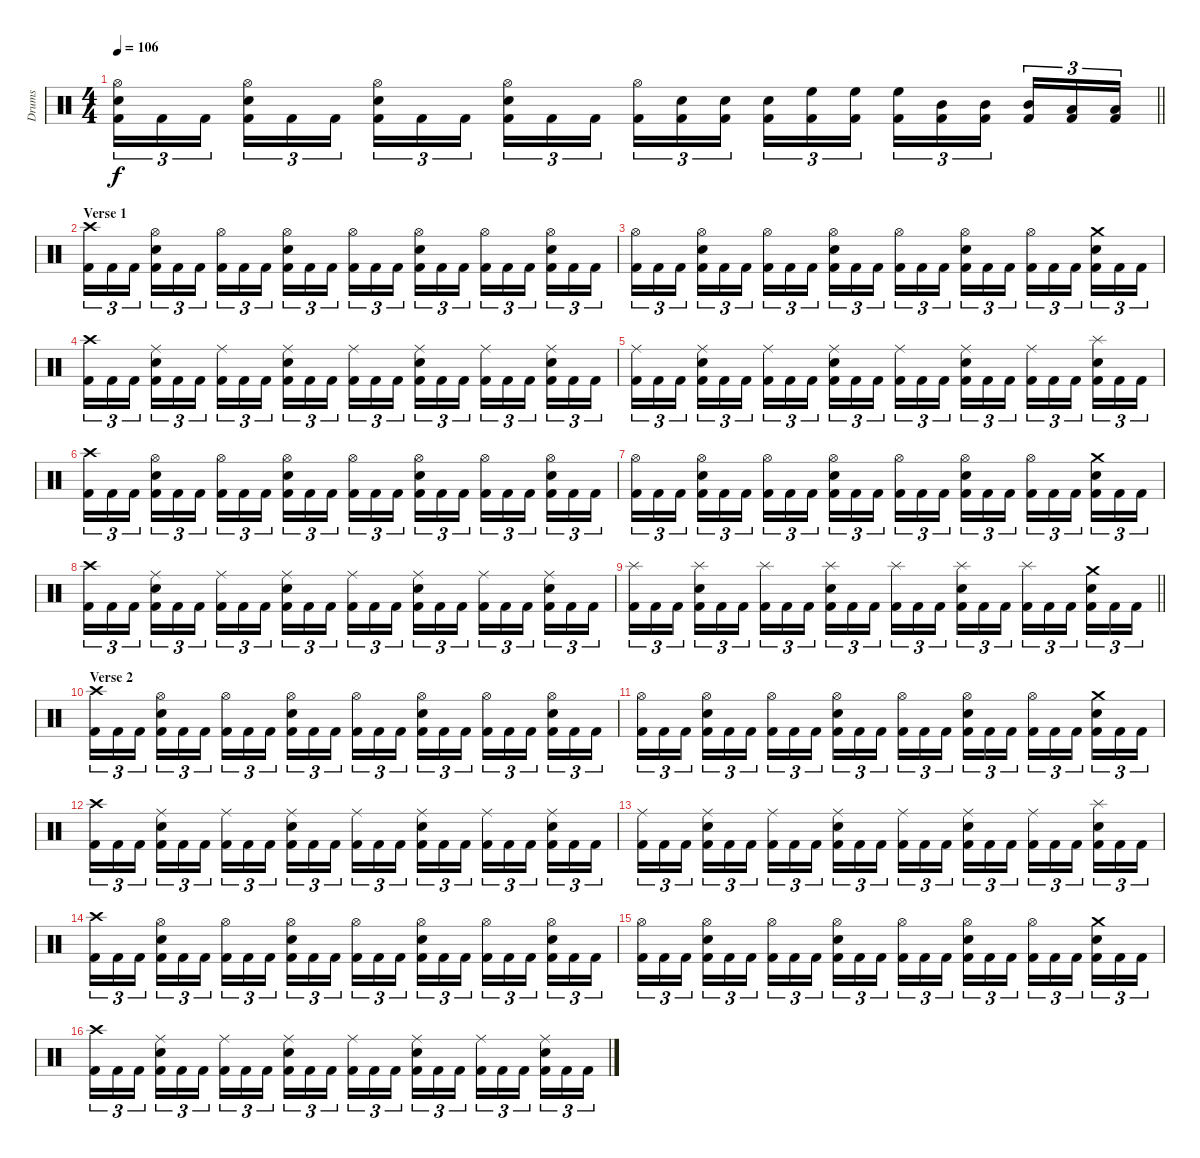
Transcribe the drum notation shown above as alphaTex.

\track ("Drums" "Drums") {instrument percussion}
\staff {score}
\articulation defaults
\ts (4 4)
\tempo 106
\clef neutral
\barLineRight lightlight
\ks c
("Hi-Hat (open)" "Electric Snare (hit)" "Kick (hit) 2").16{tu (3 2) dy f} "Kick (hit) 2".16{tu (3 2)} "Kick (hit) 2".16{tu (3 2)} ("Hi-Hat (open)" "Electric Snare (hit)" "Kick (hit) 2").16{tu (3 2)} "Kick (hit) 2".16{tu (3 2)} "Kick (hit) 2".16{tu (3 2)} ("Hi-Hat (open)" "Electric Snare (hit)" "Kick (hit) 2").16{tu (3 2)} "Kick (hit) 2".16{tu (3 2)} "Kick (hit) 2".16{tu (3 2)} ("Hi-Hat (open)" "Electric Snare (hit)" "Kick (hit) 2").16{tu (3 2)} "Kick (hit) 2".16{tu (3 2)} "Kick (hit) 2".16{tu (3 2)} ("Hi-Hat (open)" "Kick (hit) 2").16{tu (3 2)} ("Electric Snare (hit)" "Kick (hit) 2").16{tu (3 2)} ("Electric Snare (hit)" "Kick (hit) 2").16{tu (3 2)} ("Electric Snare (hit)" "Kick (hit) 2").16{tu (3 2)} ("High Floor Tom (hit)" "Kick (hit) 2").16{tu (3 2)} ("High Floor Tom (hit)" "Kick (hit) 2").16{tu (3 2)} ("High Floor Tom (hit)" "Kick (hit) 2").16{tu (3 2)} ("Mid Tom (hit)" "Kick (hit) 2").16{tu (3 2)} ("Mid Tom (hit)" "Kick (hit) 2").16{tu (3 2)} ("Mid Tom (hit)" "Kick (hit) 2").16{tu (3 2)} ("Low Tom (hit)" "Kick (hit) 2").16{tu (3 2)} ("Low Tom (hit)" "Kick (hit) 2").16{tu (3 2)} |
\section ("" "Verse 1")
("Crash high (hit)" "Kick (hit) 2").16{tu (3 2)} "Kick (hit) 2".16{tu (3 2)} "Kick (hit) 2".16{tu (3 2)} ("Hi-Hat (open)" "Electric Snare (hit)" "Kick (hit) 2").16{tu (3 2)} "Kick (hit) 2".16{tu (3 2)} "Kick (hit) 2".16{tu (3 2)} ("Hi-Hat (open)" "Kick (hit) 2").16{tu (3 2)} "Kick (hit) 2".16{tu (3 2)} "Kick (hit) 2".16{tu (3 2)} ("Hi-Hat (open)" "Electric Snare (hit)" "Kick (hit) 2").16{tu (3 2)} "Kick (hit) 2".16{tu (3 2)} "Kick (hit) 2".16{tu (3 2)} ("Hi-Hat (open)" "Kick (hit) 2").16{tu (3 2)} "Kick (hit) 2".16{tu (3 2)} "Kick (hit) 2".16{tu (3 2)} ("Hi-Hat (open)" "Electric Snare (hit)" "Kick (hit) 2").16{tu (3 2)} "Kick (hit) 2".16{tu (3 2)} "Kick (hit) 2".16{tu (3 2)} ("Hi-Hat (open)" "Kick (hit) 2").16{tu (3 2)} "Kick (hit) 2".16{tu (3 2)} "Kick (hit) 2".16{tu (3 2)} ("Hi-Hat (open)" "Electric Snare (hit)" "Kick (hit) 2").16{tu (3 2)} "Kick (hit) 2".16{tu (3 2)} "Kick (hit) 2".16{tu (3 2)} |
("Hi-Hat (open)" "Kick (hit) 2").16{tu (3 2)} "Kick (hit) 2".16{tu (3 2)} "Kick (hit) 2".16{tu (3 2)} ("Hi-Hat (open)" "Electric Snare (hit)" "Kick (hit) 2").16{tu (3 2)} "Kick (hit) 2".16{tu (3 2)} "Kick (hit) 2".16{tu (3 2)} ("Hi-Hat (open)" "Kick (hit) 2").16{tu (3 2)} "Kick (hit) 2".16{tu (3 2)} "Kick (hit) 2".16{tu (3 2)} ("Hi-Hat (open)" "Electric Snare (hit)" "Kick (hit) 2").16{tu (3 2)} "Kick (hit) 2".16{tu (3 2)} "Kick (hit) 2".16{tu (3 2)} ("Hi-Hat (open)" "Kick (hit) 2").16{tu (3 2)} "Kick (hit) 2".16{tu (3 2)} "Kick (hit) 2".16{tu (3 2)} ("Hi-Hat (open)" "Electric Snare (hit)" "Kick (hit) 2").16{tu (3 2)} "Kick (hit) 2".16{tu (3 2)} "Kick (hit) 2".16{tu (3 2)} ("Hi-Hat (open)" "Kick (hit) 2").16{tu (3 2)} "Kick (hit) 2".16{tu (3 2)} "Kick (hit) 2".16{tu (3 2)} ("Crash medium (hit)" "Electric Snare (hit)" "Kick (hit) 2").16{tu (3 2)} "Kick (hit) 2".16{tu (3 2)} "Kick (hit) 2".16{tu (3 2)} |
("Crash high (hit)" "Kick (hit) 2").16{tu (3 2)} "Kick (hit) 2".16{tu (3 2)} "Kick (hit) 2".16{tu (3 2)} ("Ride (middle)" "Electric Snare (hit)" "Kick (hit) 2").16{tu (3 2)} "Kick (hit) 2".16{tu (3 2)} "Kick (hit) 2".16{tu (3 2)} ("Ride (middle)" "Kick (hit) 2").16{tu (3 2)} "Kick (hit) 2".16{tu (3 2)} "Kick (hit) 2".16{tu (3 2)} ("Ride (middle)" "Electric Snare (hit)" "Kick (hit) 2").16{tu (3 2)} "Kick (hit) 2".16{tu (3 2)} "Kick (hit) 2".16{tu (3 2)} ("Ride (middle)" "Kick (hit) 2").16{tu (3 2)} "Kick (hit) 2".16{tu (3 2)} "Kick (hit) 2".16{tu (3 2)} ("Ride (middle)" "Electric Snare (hit)" "Kick (hit) 2").16{tu (3 2)} "Kick (hit) 2".16{tu (3 2)} "Kick (hit) 2".16{tu (3 2)} ("Ride (middle)" "Kick (hit) 2").16{tu (3 2)} "Kick (hit) 2".16{tu (3 2)} "Kick (hit) 2".16{tu (3 2)} ("Ride (middle)" "Electric Snare (hit)" "Kick (hit) 2").16{tu (3 2)} "Kick (hit) 2".16{tu (3 2)} "Kick (hit) 2".16{tu (3 2)} |
("Ride (middle)" "Kick (hit) 2").16{tu (3 2)} "Kick (hit) 2".16{tu (3 2)} "Kick (hit) 2".16{tu (3 2)} ("Ride (middle)" "Electric Snare (hit)" "Kick (hit) 2").16{tu (3 2)} "Kick (hit) 2".16{tu (3 2)} "Kick (hit) 2".16{tu (3 2)} ("Ride (middle)" "Kick (hit) 2").16{tu (3 2)} "Kick (hit) 2".16{tu (3 2)} "Kick (hit) 2".16{tu (3 2)} ("Ride (middle)" "Electric Snare (hit)" "Kick (hit) 2").16{tu (3 2)} "Kick (hit) 2".16{tu (3 2)} "Kick (hit) 2".16{tu (3 2)} ("Ride (middle)" "Kick (hit) 2").16{tu (3 2)} "Kick (hit) 2".16{tu (3 2)} "Kick (hit) 2".16{tu (3 2)} ("Ride (middle)" "Electric Snare (hit)" "Kick (hit) 2").16{tu (3 2)} "Kick (hit) 2".16{tu (3 2)} "Kick (hit) 2".16{tu (3 2)} ("Ride (middle)" "Kick (hit) 2").16{tu (3 2)} "Kick (hit) 2".16{tu (3 2)} "Kick (hit) 2".16{tu (3 2)} ("Splash (hit)" "Electric Snare (hit)" "Kick (hit) 2").16{tu (3 2)} "Kick (hit) 2".16{tu (3 2)} "Kick (hit) 2".16{tu (3 2)} |
("Crash high (hit)" "Kick (hit) 2").16{tu (3 2)} "Kick (hit) 2".16{tu (3 2)} "Kick (hit) 2".16{tu (3 2)} ("Hi-Hat (open)" "Electric Snare (hit)" "Kick (hit) 2").16{tu (3 2)} "Kick (hit) 2".16{tu (3 2)} "Kick (hit) 2".16{tu (3 2)} ("Hi-Hat (open)" "Kick (hit) 2").16{tu (3 2)} "Kick (hit) 2".16{tu (3 2)} "Kick (hit) 2".16{tu (3 2)} ("Hi-Hat (open)" "Electric Snare (hit)" "Kick (hit) 2").16{tu (3 2)} "Kick (hit) 2".16{tu (3 2)} "Kick (hit) 2".16{tu (3 2)} ("Hi-Hat (open)" "Kick (hit) 2").16{tu (3 2)} "Kick (hit) 2".16{tu (3 2)} "Kick (hit) 2".16{tu (3 2)} ("Hi-Hat (open)" "Electric Snare (hit)" "Kick (hit) 2").16{tu (3 2)} "Kick (hit) 2".16{tu (3 2)} "Kick (hit) 2".16{tu (3 2)} ("Hi-Hat (open)" "Kick (hit) 2").16{tu (3 2)} "Kick (hit) 2".16{tu (3 2)} "Kick (hit) 2".16{tu (3 2)} ("Hi-Hat (open)" "Electric Snare (hit)" "Kick (hit) 2").16{tu (3 2)} "Kick (hit) 2".16{tu (3 2)} "Kick (hit) 2".16{tu (3 2)} |
("Hi-Hat (open)" "Kick (hit) 2").16{tu (3 2)} "Kick (hit) 2".16{tu (3 2)} "Kick (hit) 2".16{tu (3 2)} ("Hi-Hat (open)" "Electric Snare (hit)" "Kick (hit) 2").16{tu (3 2)} "Kick (hit) 2".16{tu (3 2)} "Kick (hit) 2".16{tu (3 2)} ("Hi-Hat (open)" "Kick (hit) 2").16{tu (3 2)} "Kick (hit) 2".16{tu (3 2)} "Kick (hit) 2".16{tu (3 2)} ("Hi-Hat (open)" "Electric Snare (hit)" "Kick (hit) 2").16{tu (3 2)} "Kick (hit) 2".16{tu (3 2)} "Kick (hit) 2".16{tu (3 2)} ("Hi-Hat (open)" "Kick (hit) 2").16{tu (3 2)} "Kick (hit) 2".16{tu (3 2)} "Kick (hit) 2".16{tu (3 2)} ("Hi-Hat (open)" "Electric Snare (hit)" "Kick (hit) 2").16{tu (3 2)} "Kick (hit) 2".16{tu (3 2)} "Kick (hit) 2".16{tu (3 2)} ("Hi-Hat (open)" "Kick (hit) 2").16{tu (3 2)} "Kick (hit) 2".16{tu (3 2)} "Kick (hit) 2".16{tu (3 2)} ("Crash medium (hit)" "Electric Snare (hit)" "Kick (hit) 2").16{tu (3 2)} "Kick (hit) 2".16{tu (3 2)} "Kick (hit) 2".16{tu (3 2)} |
("Crash high (hit)" "Kick (hit) 2").16{tu (3 2)} "Kick (hit) 2".16{tu (3 2)} "Kick (hit) 2".16{tu (3 2)} ("Ride (middle)" "Electric Snare (hit)" "Kick (hit) 2").16{tu (3 2)} "Kick (hit) 2".16{tu (3 2)} "Kick (hit) 2".16{tu (3 2)} ("Ride (middle)" "Kick (hit) 2").16{tu (3 2)} "Kick (hit) 2".16{tu (3 2)} "Kick (hit) 2".16{tu (3 2)} ("Ride (middle)" "Electric Snare (hit)" "Kick (hit) 2").16{tu (3 2)} "Kick (hit) 2".16{tu (3 2)} "Kick (hit) 2".16{tu (3 2)} ("Ride (middle)" "Kick (hit) 2").16{tu (3 2)} "Kick (hit) 2".16{tu (3 2)} "Kick (hit) 2".16{tu (3 2)} ("Ride (middle)" "Electric Snare (hit)" "Kick (hit) 2").16{tu (3 2)} "Kick (hit) 2".16{tu (3 2)} "Kick (hit) 2".16{tu (3 2)} ("Ride (middle)" "Kick (hit) 2").16{tu (3 2)} "Kick (hit) 2".16{tu (3 2)} "Kick (hit) 2".16{tu (3 2)} ("Ride (middle)" "Electric Snare (hit)" "Kick (hit) 2").16{tu (3 2)} "Kick (hit) 2".16{tu (3 2)} "Kick (hit) 2".16{tu (3 2)} |
\barLineRight lightlight
("Splash (hit)" "Kick (hit) 2").16{tu (3 2)} "Kick (hit) 2".16{tu (3 2)} "Kick (hit) 2".16{tu (3 2)} ("Splash (hit)" "Electric Snare (hit)" "Kick (hit) 2").16{tu (3 2)} "Kick (hit) 2".16{tu (3 2)} "Kick (hit) 2".16{tu (3 2)} ("Splash (hit)" "Kick (hit) 2").16{tu (3 2)} "Kick (hit) 2".16{tu (3 2)} "Kick (hit) 2".16{tu (3 2)} ("Splash (hit)" "Electric Snare (hit)" "Kick (hit) 2").16{tu (3 2)} "Kick (hit) 2".16{tu (3 2)} "Kick (hit) 2".16{tu (3 2)} ("Splash (hit)" "Kick (hit) 2").16{tu (3 2)} "Kick (hit) 2".16{tu (3 2)} "Kick (hit) 2".16{tu (3 2)} ("Splash (hit)" "Electric Snare (hit)" "Kick (hit) 2").16{tu (3 2)} "Kick (hit) 2".16{tu (3 2)} "Kick (hit) 2".16{tu (3 2)} ("Splash (hit)" "Kick (hit) 2").16{tu (3 2)} "Kick (hit) 2".16{tu (3 2)} "Kick (hit) 2".16{tu (3 2)} ("Crash medium (hit)" "Electric Snare (hit)" "Kick (hit) 2").16{tu (3 2)} "Kick (hit) 2".16{tu (3 2)} "Kick (hit) 2".16{tu (3 2)} |
\section ("" "Verse 2")
("Crash high (hit)" "Kick (hit) 2").16{tu (3 2)} "Kick (hit) 2".16{tu (3 2)} "Kick (hit) 2".16{tu (3 2)} ("Hi-Hat (open)" "Electric Snare (hit)" "Kick (hit) 2").16{tu (3 2)} "Kick (hit) 2".16{tu (3 2)} "Kick (hit) 2".16{tu (3 2)} ("Hi-Hat (open)" "Kick (hit) 2").16{tu (3 2)} "Kick (hit) 2".16{tu (3 2)} "Kick (hit) 2".16{tu (3 2)} ("Hi-Hat (open)" "Electric Snare (hit)" "Kick (hit) 2").16{tu (3 2)} "Kick (hit) 2".16{tu (3 2)} "Kick (hit) 2".16{tu (3 2)} ("Hi-Hat (open)" "Kick (hit) 2").16{tu (3 2)} "Kick (hit) 2".16{tu (3 2)} "Kick (hit) 2".16{tu (3 2)} ("Hi-Hat (open)" "Electric Snare (hit)" "Kick (hit) 2").16{tu (3 2)} "Kick (hit) 2".16{tu (3 2)} "Kick (hit) 2".16{tu (3 2)} ("Hi-Hat (open)" "Kick (hit) 2").16{tu (3 2)} "Kick (hit) 2".16{tu (3 2)} "Kick (hit) 2".16{tu (3 2)} ("Hi-Hat (open)" "Electric Snare (hit)" "Kick (hit) 2").16{tu (3 2)} "Kick (hit) 2".16{tu (3 2)} "Kick (hit) 2".16{tu (3 2)} |
("Hi-Hat (open)" "Kick (hit) 2").16{tu (3 2)} "Kick (hit) 2".16{tu (3 2)} "Kick (hit) 2".16{tu (3 2)} ("Hi-Hat (open)" "Electric Snare (hit)" "Kick (hit) 2").16{tu (3 2)} "Kick (hit) 2".16{tu (3 2)} "Kick (hit) 2".16{tu (3 2)} ("Hi-Hat (open)" "Kick (hit) 2").16{tu (3 2)} "Kick (hit) 2".16{tu (3 2)} "Kick (hit) 2".16{tu (3 2)} ("Hi-Hat (open)" "Electric Snare (hit)" "Kick (hit) 2").16{tu (3 2)} "Kick (hit) 2".16{tu (3 2)} "Kick (hit) 2".16{tu (3 2)} ("Hi-Hat (open)" "Kick (hit) 2").16{tu (3 2)} "Kick (hit) 2".16{tu (3 2)} "Kick (hit) 2".16{tu (3 2)} ("Hi-Hat (open)" "Electric Snare (hit)" "Kick (hit) 2").16{tu (3 2)} "Kick (hit) 2".16{tu (3 2)} "Kick (hit) 2".16{tu (3 2)} ("Hi-Hat (open)" "Kick (hit) 2").16{tu (3 2)} "Kick (hit) 2".16{tu (3 2)} "Kick (hit) 2".16{tu (3 2)} ("Crash medium (hit)" "Electric Snare (hit)" "Kick (hit) 2").16{tu (3 2)} "Kick (hit) 2".16{tu (3 2)} "Kick (hit) 2".16{tu (3 2)} |
("Crash high (hit)" "Kick (hit) 2").16{tu (3 2)} "Kick (hit) 2".16{tu (3 2)} "Kick (hit) 2".16{tu (3 2)} ("Ride (middle)" "Electric Snare (hit)" "Kick (hit) 2").16{tu (3 2)} "Kick (hit) 2".16{tu (3 2)} "Kick (hit) 2".16{tu (3 2)} ("Ride (middle)" "Kick (hit) 2").16{tu (3 2)} "Kick (hit) 2".16{tu (3 2)} "Kick (hit) 2".16{tu (3 2)} ("Ride (middle)" "Electric Snare (hit)" "Kick (hit) 2").16{tu (3 2)} "Kick (hit) 2".16{tu (3 2)} "Kick (hit) 2".16{tu (3 2)} ("Ride (middle)" "Kick (hit) 2").16{tu (3 2)} "Kick (hit) 2".16{tu (3 2)} "Kick (hit) 2".16{tu (3 2)} ("Ride (middle)" "Electric Snare (hit)" "Kick (hit) 2").16{tu (3 2)} "Kick (hit) 2".16{tu (3 2)} "Kick (hit) 2".16{tu (3 2)} ("Ride (middle)" "Kick (hit) 2").16{tu (3 2)} "Kick (hit) 2".16{tu (3 2)} "Kick (hit) 2".16{tu (3 2)} ("Ride (middle)" "Electric Snare (hit)" "Kick (hit) 2").16{tu (3 2)} "Kick (hit) 2".16{tu (3 2)} "Kick (hit) 2".16{tu (3 2)} |
("Ride (middle)" "Kick (hit) 2").16{tu (3 2)} "Kick (hit) 2".16{tu (3 2)} "Kick (hit) 2".16{tu (3 2)} ("Ride (middle)" "Electric Snare (hit)" "Kick (hit) 2").16{tu (3 2)} "Kick (hit) 2".16{tu (3 2)} "Kick (hit) 2".16{tu (3 2)} ("Ride (middle)" "Kick (hit) 2").16{tu (3 2)} "Kick (hit) 2".16{tu (3 2)} "Kick (hit) 2".16{tu (3 2)} ("Ride (middle)" "Electric Snare (hit)" "Kick (hit) 2").16{tu (3 2)} "Kick (hit) 2".16{tu (3 2)} "Kick (hit) 2".16{tu (3 2)} ("Ride (middle)" "Kick (hit) 2").16{tu (3 2)} "Kick (hit) 2".16{tu (3 2)} "Kick (hit) 2".16{tu (3 2)} ("Ride (middle)" "Electric Snare (hit)" "Kick (hit) 2").16{tu (3 2)} "Kick (hit) 2".16{tu (3 2)} "Kick (hit) 2".16{tu (3 2)} ("Ride (middle)" "Kick (hit) 2").16{tu (3 2)} "Kick (hit) 2".16{tu (3 2)} "Kick (hit) 2".16{tu (3 2)} ("Splash (hit)" "Electric Snare (hit)" "Kick (hit) 2").16{tu (3 2)} "Kick (hit) 2".16{tu (3 2)} "Kick (hit) 2".16{tu (3 2)} |
("Crash high (hit)" "Kick (hit) 2").16{tu (3 2)} "Kick (hit) 2".16{tu (3 2)} "Kick (hit) 2".16{tu (3 2)} ("Hi-Hat (open)" "Electric Snare (hit)" "Kick (hit) 2").16{tu (3 2)} "Kick (hit) 2".16{tu (3 2)} "Kick (hit) 2".16{tu (3 2)} ("Hi-Hat (open)" "Kick (hit) 2").16{tu (3 2)} "Kick (hit) 2".16{tu (3 2)} "Kick (hit) 2".16{tu (3 2)} ("Hi-Hat (open)" "Electric Snare (hit)" "Kick (hit) 2").16{tu (3 2)} "Kick (hit) 2".16{tu (3 2)} "Kick (hit) 2".16{tu (3 2)} ("Hi-Hat (open)" "Kick (hit) 2").16{tu (3 2)} "Kick (hit) 2".16{tu (3 2)} "Kick (hit) 2".16{tu (3 2)} ("Hi-Hat (open)" "Electric Snare (hit)" "Kick (hit) 2").16{tu (3 2)} "Kick (hit) 2".16{tu (3 2)} "Kick (hit) 2".16{tu (3 2)} ("Hi-Hat (open)" "Kick (hit) 2").16{tu (3 2)} "Kick (hit) 2".16{tu (3 2)} "Kick (hit) 2".16{tu (3 2)} ("Hi-Hat (open)" "Electric Snare (hit)" "Kick (hit) 2").16{tu (3 2)} "Kick (hit) 2".16{tu (3 2)} "Kick (hit) 2".16{tu (3 2)} |
("Hi-Hat (open)" "Kick (hit) 2").16{tu (3 2)} "Kick (hit) 2".16{tu (3 2)} "Kick (hit) 2".16{tu (3 2)} ("Hi-Hat (open)" "Electric Snare (hit)" "Kick (hit) 2").16{tu (3 2)} "Kick (hit) 2".16{tu (3 2)} "Kick (hit) 2".16{tu (3 2)} ("Hi-Hat (open)" "Kick (hit) 2").16{tu (3 2)} "Kick (hit) 2".16{tu (3 2)} "Kick (hit) 2".16{tu (3 2)} ("Hi-Hat (open)" "Electric Snare (hit)" "Kick (hit) 2").16{tu (3 2)} "Kick (hit) 2".16{tu (3 2)} "Kick (hit) 2".16{tu (3 2)} ("Hi-Hat (open)" "Kick (hit) 2").16{tu (3 2)} "Kick (hit) 2".16{tu (3 2)} "Kick (hit) 2".16{tu (3 2)} ("Hi-Hat (open)" "Electric Snare (hit)" "Kick (hit) 2").16{tu (3 2)} "Kick (hit) 2".16{tu (3 2)} "Kick (hit) 2".16{tu (3 2)} ("Hi-Hat (open)" "Kick (hit) 2").16{tu (3 2)} "Kick (hit) 2".16{tu (3 2)} "Kick (hit) 2".16{tu (3 2)} ("Crash medium (hit)" "Electric Snare (hit)" "Kick (hit) 2").16{tu (3 2)} "Kick (hit) 2".16{tu (3 2)} "Kick (hit) 2".16{tu (3 2)} |
("Crash high (hit)" "Kick (hit) 2").16{tu (3 2)} "Kick (hit) 2".16{tu (3 2)} "Kick (hit) 2".16{tu (3 2)} ("Ride (middle)" "Electric Snare (hit)" "Kick (hit) 2").16{tu (3 2)} "Kick (hit) 2".16{tu (3 2)} "Kick (hit) 2".16{tu (3 2)} ("Ride (middle)" "Kick (hit) 2").16{tu (3 2)} "Kick (hit) 2".16{tu (3 2)} "Kick (hit) 2".16{tu (3 2)} ("Ride (middle)" "Electric Snare (hit)" "Kick (hit) 2").16{tu (3 2)} "Kick (hit) 2".16{tu (3 2)} "Kick (hit) 2".16{tu (3 2)} ("Ride (middle)" "Kick (hit) 2").16{tu (3 2)} "Kick (hit) 2".16{tu (3 2)} "Kick (hit) 2".16{tu (3 2)} ("Ride (middle)" "Electric Snare (hit)" "Kick (hit) 2").16{tu (3 2)} "Kick (hit) 2".16{tu (3 2)} "Kick (hit) 2".16{tu (3 2)} ("Ride (middle)" "Kick (hit) 2").16{tu (3 2)} "Kick (hit) 2".16{tu (3 2)} "Kick (hit) 2".16{tu (3 2)} ("Ride (middle)" "Electric Snare (hit)" "Kick (hit) 2").16{tu (3 2)} "Kick (hit) 2".16{tu (3 2)} "Kick (hit) 2".16{tu (3 2)}
